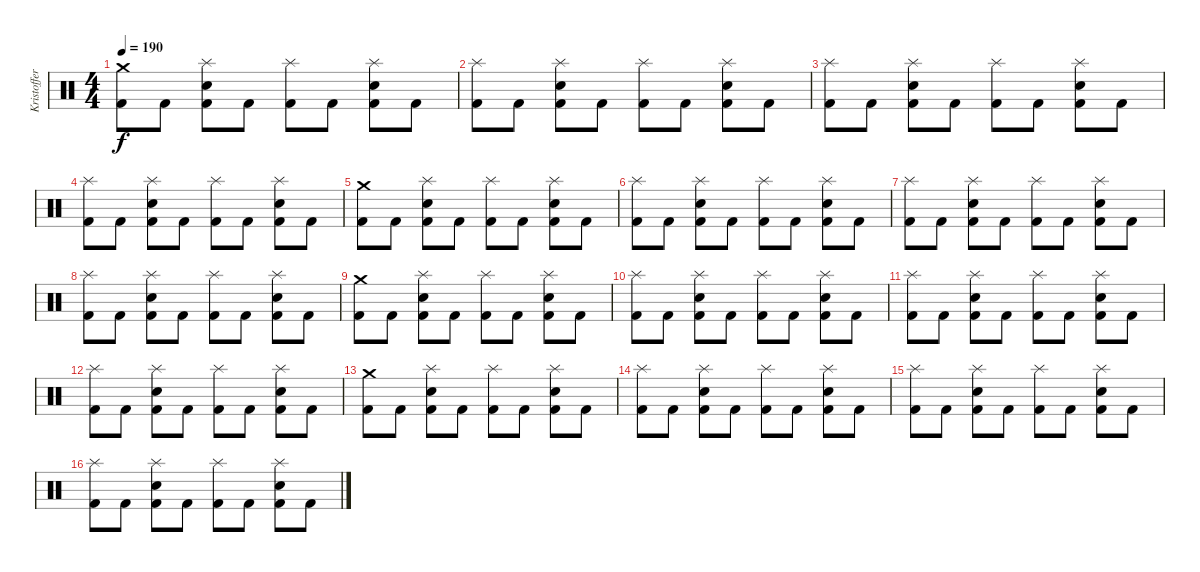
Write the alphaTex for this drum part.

\track ("Kristoffer (Drums)" "Kristoffer") {instrument percussion}
\staff {score}
\articulation defaults
\ts (4 4)
\tempo 190
\clef neutral
\ks c
("Kick (hit) 2" "Crash medium (hit)").8{dy f} "Kick (hit) 2".8 ("Kick (hit) 2" "Electric Snare (hit)" "Splash (hit)").8 "Kick (hit) 2".8 ("Kick (hit) 2" "Splash (hit)").8 "Kick (hit) 2".8 ("Kick (hit) 2" "Electric Snare (hit)" "Splash (hit)").8 "Kick (hit) 2".8 |
("Kick (hit) 2" "Splash (hit)").8 "Kick (hit) 2".8 ("Kick (hit) 2" "Electric Snare (hit)" "Splash (hit)").8 "Kick (hit) 2".8 ("Kick (hit) 2" "Splash (hit)").8 "Kick (hit) 2".8 ("Kick (hit) 2" "Electric Snare (hit)" "Splash (hit)").8 "Kick (hit) 2".8 |
("Kick (hit) 2" "Splash (hit)").8 "Kick (hit) 2".8 ("Kick (hit) 2" "Electric Snare (hit)" "Splash (hit)").8 "Kick (hit) 2".8 ("Kick (hit) 2" "Splash (hit)").8 "Kick (hit) 2".8 ("Kick (hit) 2" "Electric Snare (hit)" "Splash (hit)").8 "Kick (hit) 2".8 |
("Kick (hit) 2" "Splash (hit)").8 "Kick (hit) 2".8 ("Kick (hit) 2" "Electric Snare (hit)" "Splash (hit)").8 "Kick (hit) 2".8 ("Kick (hit) 2" "Splash (hit)").8 "Kick (hit) 2".8 ("Kick (hit) 2" "Electric Snare (hit)" "Splash (hit)").8 "Kick (hit) 2".8 |
("Kick (hit) 2" "Crash medium (hit)").8 "Kick (hit) 2".8 ("Kick (hit) 2" "Electric Snare (hit)" "Splash (hit)").8 "Kick (hit) 2".8 ("Kick (hit) 2" "Splash (hit)").8 "Kick (hit) 2".8 ("Kick (hit) 2" "Electric Snare (hit)" "Splash (hit)").8 "Kick (hit) 2".8 |
("Kick (hit) 2" "Splash (hit)").8 "Kick (hit) 2".8 ("Kick (hit) 2" "Electric Snare (hit)" "Splash (hit)").8 "Kick (hit) 2".8 ("Kick (hit) 2" "Splash (hit)").8 "Kick (hit) 2".8 ("Kick (hit) 2" "Electric Snare (hit)" "Splash (hit)").8 "Kick (hit) 2".8 |
("Kick (hit) 2" "Splash (hit)").8 "Kick (hit) 2".8 ("Kick (hit) 2" "Electric Snare (hit)" "Splash (hit)").8 "Kick (hit) 2".8 ("Kick (hit) 2" "Splash (hit)").8 "Kick (hit) 2".8 ("Kick (hit) 2" "Electric Snare (hit)" "Splash (hit)").8 "Kick (hit) 2".8 |
("Kick (hit) 2" "Splash (hit)").8 "Kick (hit) 2".8 ("Kick (hit) 2" "Electric Snare (hit)" "Splash (hit)").8 "Kick (hit) 2".8 ("Kick (hit) 2" "Splash (hit)").8 "Kick (hit) 2".8 ("Kick (hit) 2" "Electric Snare (hit)" "Splash (hit)").8 "Kick (hit) 2".8 |
("Kick (hit) 2" "Crash medium (hit)").8 "Kick (hit) 2".8 ("Kick (hit) 2" "Electric Snare (hit)" "Splash (hit)").8 "Kick (hit) 2".8 ("Kick (hit) 2" "Splash (hit)").8 "Kick (hit) 2".8 ("Kick (hit) 2" "Electric Snare (hit)" "Splash (hit)").8 "Kick (hit) 2".8 |
("Kick (hit) 2" "Splash (hit)").8 "Kick (hit) 2".8 ("Kick (hit) 2" "Electric Snare (hit)" "Splash (hit)").8 "Kick (hit) 2".8 ("Kick (hit) 2" "Splash (hit)").8 "Kick (hit) 2".8 ("Kick (hit) 2" "Electric Snare (hit)" "Splash (hit)").8 "Kick (hit) 2".8 |
("Kick (hit) 2" "Splash (hit)").8 "Kick (hit) 2".8 ("Kick (hit) 2" "Electric Snare (hit)" "Splash (hit)").8 "Kick (hit) 2".8 ("Kick (hit) 2" "Splash (hit)").8 "Kick (hit) 2".8 ("Kick (hit) 2" "Electric Snare (hit)" "Splash (hit)").8 "Kick (hit) 2".8 |
("Kick (hit) 2" "Splash (hit)").8 "Kick (hit) 2".8 ("Kick (hit) 2" "Electric Snare (hit)" "Splash (hit)").8 "Kick (hit) 2".8 ("Kick (hit) 2" "Splash (hit)").8 "Kick (hit) 2".8 ("Kick (hit) 2" "Electric Snare (hit)" "Splash (hit)").8 "Kick (hit) 2".8 |
("Kick (hit) 2" "Crash medium (hit)").8 "Kick (hit) 2".8 ("Kick (hit) 2" "Electric Snare (hit)" "Splash (hit)").8 "Kick (hit) 2".8 ("Kick (hit) 2" "Splash (hit)").8 "Kick (hit) 2".8 ("Kick (hit) 2" "Electric Snare (hit)" "Splash (hit)").8 "Kick (hit) 2".8 |
("Kick (hit) 2" "Splash (hit)").8 "Kick (hit) 2".8 ("Kick (hit) 2" "Electric Snare (hit)" "Splash (hit)").8 "Kick (hit) 2".8 ("Kick (hit) 2" "Splash (hit)").8 "Kick (hit) 2".8 ("Kick (hit) 2" "Electric Snare (hit)" "Splash (hit)").8 "Kick (hit) 2".8 |
("Kick (hit) 2" "Splash (hit)").8 "Kick (hit) 2".8 ("Kick (hit) 2" "Electric Snare (hit)" "Splash (hit)").8 "Kick (hit) 2".8 ("Kick (hit) 2" "Splash (hit)").8 "Kick (hit) 2".8 ("Kick (hit) 2" "Electric Snare (hit)" "Splash (hit)").8 "Kick (hit) 2".8 |
("Kick (hit) 2" "Splash (hit)").8 "Kick (hit) 2".8 ("Kick (hit) 2" "Electric Snare (hit)" "Splash (hit)").8 "Kick (hit) 2".8 ("Kick (hit) 2" "Splash (hit)").8 "Kick (hit) 2".8 ("Kick (hit) 2" "Electric Snare (hit)" "Splash (hit)").8 "Kick (hit) 2".8
